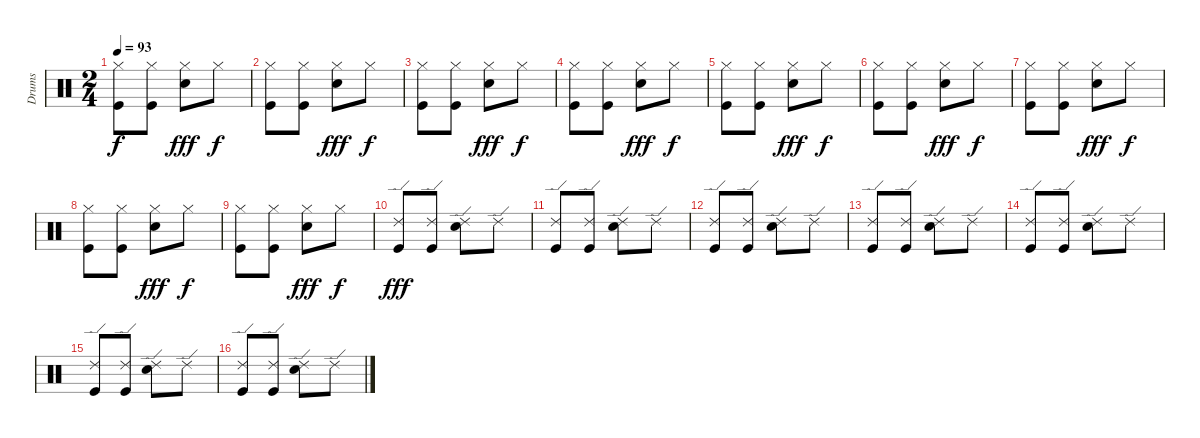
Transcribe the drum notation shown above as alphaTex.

\track ("Drums" "Drums") {instrument percussion}
\staff {score}
\articulation defaults
\ts (2 4)
\tempo 93
\clef neutral
\ks c
("Hi-Hat (closed)" "Kick (hit)").8{dy f} ("Hi-Hat (closed)" "Kick (hit)").8 ("Hi-Hat (closed)" "Snare (hit) 2").8{dy fff} "Hi-Hat (closed)".8{dy f} |
("Hi-Hat (closed)" "Kick (hit)").8 ("Hi-Hat (closed)" "Kick (hit)").8 ("Hi-Hat (closed)" "Snare (hit) 2").8{dy fff} "Hi-Hat (closed)".8{dy f} |
("Hi-Hat (closed)" "Kick (hit)").8 ("Hi-Hat (closed)" "Kick (hit)").8 ("Hi-Hat (closed)" "Snare (hit) 2").8{dy fff} "Hi-Hat (closed)".8{dy f} |
("Hi-Hat (closed)" "Kick (hit)").8 ("Hi-Hat (closed)" "Kick (hit)").8 ("Hi-Hat (closed)" "Snare (hit) 2").8{dy fff} "Hi-Hat (closed)".8{dy f} |
("Hi-Hat (closed)" "Kick (hit)").8 ("Hi-Hat (closed)" "Kick (hit)").8 ("Hi-Hat (closed)" "Snare (hit) 2").8{dy fff} "Hi-Hat (closed)".8{dy f} |
("Hi-Hat (closed)" "Kick (hit)").8 ("Hi-Hat (closed)" "Kick (hit)").8 ("Hi-Hat (closed)" "Snare (hit) 2").8{dy fff} "Hi-Hat (closed)".8{dy f} |
("Hi-Hat (closed)" "Kick (hit)").8 ("Hi-Hat (closed)" "Kick (hit)").8 ("Hi-Hat (closed)" "Snare (hit) 2").8{dy fff} "Hi-Hat (closed)".8{dy f} |
("Hi-Hat (closed)" "Kick (hit)").8 ("Hi-Hat (closed)" "Kick (hit)").8 ("Hi-Hat (closed)" "Snare (hit) 2").8{dy fff} "Hi-Hat (closed)".8{dy f} |
("Hi-Hat (closed)" "Kick (hit)").8 ("Hi-Hat (closed)" "Kick (hit)").8 ("Hi-Hat (closed)" "Snare (hit) 2").8{dy fff} "Hi-Hat (closed)".8{dy f} |
("Ride (edge) 2" "Kick (hit)").8{dy fff} ("Ride (edge) 2" "Kick (hit)").8 ("Ride (edge) 2" "Snare (hit) 2").8 "Ride (edge) 2".8 |
("Ride (edge) 2" "Kick (hit)").8 ("Ride (edge) 2" "Kick (hit)").8 ("Ride (edge) 2" "Snare (hit) 2").8 "Ride (edge) 2".8 |
("Ride (edge) 2" "Kick (hit)").8 ("Ride (edge) 2" "Kick (hit)").8 ("Ride (edge) 2" "Snare (hit) 2").8 "Ride (edge) 2".8 |
("Ride (edge) 2" "Kick (hit)").8 ("Ride (edge) 2" "Kick (hit)").8 ("Ride (edge) 2" "Snare (hit) 2").8 "Ride (edge) 2".8 |
("Ride (edge) 2" "Kick (hit)").8 ("Ride (edge) 2" "Kick (hit)").8 ("Ride (edge) 2" "Snare (hit) 2").8 "Ride (edge) 2".8 |
("Ride (edge) 2" "Kick (hit)").8 ("Ride (edge) 2" "Kick (hit)").8 ("Ride (edge) 2" "Snare (hit) 2").8 "Ride (edge) 2".8 |
("Ride (edge) 2" "Kick (hit)").8 ("Ride (edge) 2" "Kick (hit)").8 ("Ride (edge) 2" "Snare (hit) 2").8 "Ride (edge) 2".8
